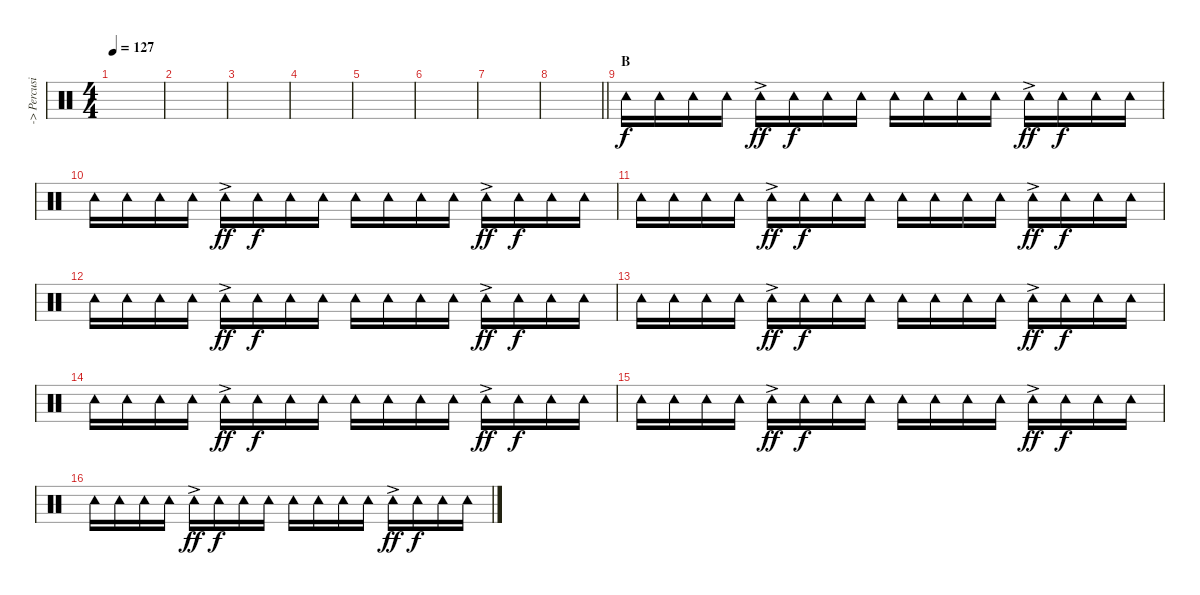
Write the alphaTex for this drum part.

\track ("-> Percusion" "-> Percusi") {instrument percussion}
\staff {score}
\articulation defaults
\ts (4 4)
\tempo 127
\clef neutral
\ks c
|
|
|
|
|
|
|
\barLineRight lightlight
|
\section ("" "B")
"Tambourine (hit)".16{volume 10} "Tambourine (hit)".16 "Tambourine (hit)".16 "Tambourine (hit)".16 "Tambourine (hit)"{ac}.16{dy ff} "Tambourine (hit)".16{dy f} "Tambourine (hit)".16 "Tambourine (hit)".16 "Tambourine (hit)".16 "Tambourine (hit)".16 "Tambourine (hit)".16 "Tambourine (hit)".16 "Tambourine (hit)"{ac}.16{dy ff} "Tambourine (hit)".16{dy f} "Tambourine (hit)".16 "Tambourine (hit)".16 |
"Tambourine (hit)".16 "Tambourine (hit)".16 "Tambourine (hit)".16 "Tambourine (hit)".16 "Tambourine (hit)"{ac}.16{dy ff} "Tambourine (hit)".16{dy f} "Tambourine (hit)".16 "Tambourine (hit)".16 "Tambourine (hit)".16 "Tambourine (hit)".16 "Tambourine (hit)".16 "Tambourine (hit)".16 "Tambourine (hit)"{ac}.16{dy ff} "Tambourine (hit)".16{dy f} "Tambourine (hit)".16 "Tambourine (hit)".16 |
"Tambourine (hit)".16 "Tambourine (hit)".16 "Tambourine (hit)".16 "Tambourine (hit)".16 "Tambourine (hit)"{ac}.16{dy ff} "Tambourine (hit)".16{dy f} "Tambourine (hit)".16 "Tambourine (hit)".16 "Tambourine (hit)".16 "Tambourine (hit)".16 "Tambourine (hit)".16 "Tambourine (hit)".16 "Tambourine (hit)"{ac}.16{dy ff} "Tambourine (hit)".16{dy f} "Tambourine (hit)".16 "Tambourine (hit)".16 |
"Tambourine (hit)".16 "Tambourine (hit)".16 "Tambourine (hit)".16 "Tambourine (hit)".16 "Tambourine (hit)"{ac}.16{dy ff} "Tambourine (hit)".16{dy f} "Tambourine (hit)".16 "Tambourine (hit)".16 "Tambourine (hit)".16 "Tambourine (hit)".16 "Tambourine (hit)".16 "Tambourine (hit)".16 "Tambourine (hit)"{ac}.16{dy ff} "Tambourine (hit)".16{dy f} "Tambourine (hit)".16 "Tambourine (hit)".16 |
"Tambourine (hit)".16 "Tambourine (hit)".16 "Tambourine (hit)".16 "Tambourine (hit)".16 "Tambourine (hit)"{ac}.16{dy ff} "Tambourine (hit)".16{dy f} "Tambourine (hit)".16 "Tambourine (hit)".16 "Tambourine (hit)".16 "Tambourine (hit)".16 "Tambourine (hit)".16 "Tambourine (hit)".16 "Tambourine (hit)"{ac}.16{dy ff} "Tambourine (hit)".16{dy f} "Tambourine (hit)".16 "Tambourine (hit)".16 |
"Tambourine (hit)".16 "Tambourine (hit)".16 "Tambourine (hit)".16 "Tambourine (hit)".16 "Tambourine (hit)"{ac}.16{dy ff} "Tambourine (hit)".16{dy f} "Tambourine (hit)".16 "Tambourine (hit)".16 "Tambourine (hit)".16 "Tambourine (hit)".16 "Tambourine (hit)".16 "Tambourine (hit)".16 "Tambourine (hit)"{ac}.16{dy ff} "Tambourine (hit)".16{dy f} "Tambourine (hit)".16 "Tambourine (hit)".16 |
"Tambourine (hit)".16 "Tambourine (hit)".16 "Tambourine (hit)".16 "Tambourine (hit)".16 "Tambourine (hit)"{ac}.16{dy ff} "Tambourine (hit)".16{dy f} "Tambourine (hit)".16 "Tambourine (hit)".16 "Tambourine (hit)".16 "Tambourine (hit)".16 "Tambourine (hit)".16 "Tambourine (hit)".16 "Tambourine (hit)"{ac}.16{dy ff} "Tambourine (hit)".16{dy f} "Tambourine (hit)".16 "Tambourine (hit)".16 |
"Tambourine (hit)".16 "Tambourine (hit)".16 "Tambourine (hit)".16 "Tambourine (hit)".16 "Tambourine (hit)"{ac}.16{dy ff} "Tambourine (hit)".16{dy f} "Tambourine (hit)".16 "Tambourine (hit)".16 "Tambourine (hit)".16 "Tambourine (hit)".16 "Tambourine (hit)".16 "Tambourine (hit)".16 "Tambourine (hit)"{ac}.16{dy ff} "Tambourine (hit)".16{dy f} "Tambourine (hit)".16 "Tambourine (hit)".16
